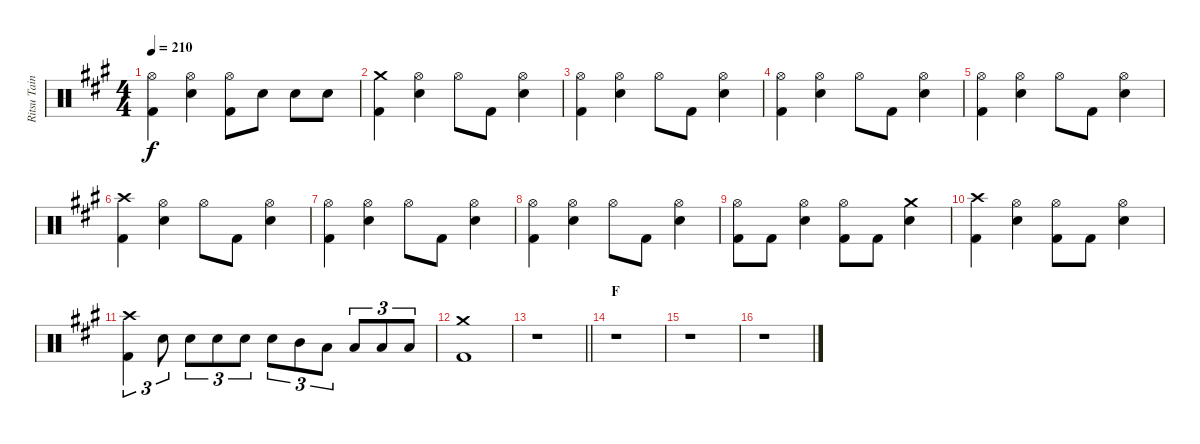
\track ("Ritsu Tainaka" "Ritsu Tain") {instrument percussion}
\staff {score}
\articulation defaults
\ts (4 4)
\tempo 210
\clef neutral
\ks a
("Hi-Hat (open)" "Kick (hit) 2").4{dy f} ("Hi-Hat (open)" "Electric Snare (hit)").4 ("Hi-Hat (open)" "Kick (hit) 2").8 "Electric Snare (hit)".8 "Electric Snare (hit)".8 "Electric Snare (hit)".8 |
("Crash medium (hit)" "Kick (hit) 2").4 ("Hi-Hat (open)" "Electric Snare (hit)").4 "Hi-Hat (open)".8 "Kick (hit) 2".8 ("Hi-Hat (open)" "Electric Snare (hit)").4 |
("Hi-Hat (open)" "Kick (hit) 2").4 ("Hi-Hat (open)" "Electric Snare (hit)").4 "Hi-Hat (open)".8 "Kick (hit) 2".8 ("Hi-Hat (open)" "Electric Snare (hit)").4 |
("Hi-Hat (open)" "Kick (hit) 2").4 ("Hi-Hat (open)" "Electric Snare (hit)").4 "Hi-Hat (open)".8 "Kick (hit) 2".8 ("Hi-Hat (open)" "Electric Snare (hit)").4 |
("Hi-Hat (open)" "Kick (hit) 2").4 ("Hi-Hat (open)" "Electric Snare (hit)").4 "Hi-Hat (open)".8 "Kick (hit) 2".8 ("Hi-Hat (open)" "Electric Snare (hit)").4 |
("Crash high (hit)" "Kick (hit) 2").4 ("Hi-Hat (open)" "Electric Snare (hit)").4 "Hi-Hat (open)".8 "Kick (hit) 2".8 ("Hi-Hat (open)" "Electric Snare (hit)").4 |
("Hi-Hat (open)" "Kick (hit) 2").4 ("Hi-Hat (open)" "Electric Snare (hit)").4 "Hi-Hat (open)".8 "Kick (hit) 2".8 ("Hi-Hat (open)" "Electric Snare (hit)").4 |
("Hi-Hat (open)" "Kick (hit) 2").4 ("Hi-Hat (open)" "Electric Snare (hit)").4 "Hi-Hat (open)".8 "Kick (hit) 2".8 ("Hi-Hat (open)" "Electric Snare (hit)").4 |
("Hi-Hat (open)" "Kick (hit) 2").8 "Kick (hit) 2".8 ("Hi-Hat (open)" "Electric Snare (hit)").4 ("Hi-Hat (open)" "Kick (hit) 2").8 "Kick (hit) 2".8 ("Crash medium (hit)" "Electric Snare (hit)").4 |
("Crash high (hit)" "Kick (hit) 2").4 ("Hi-Hat (open)" "Electric Snare (hit)").4 ("Hi-Hat (open)" "Kick (hit) 2").8 "Kick (hit) 2".8 ("Hi-Hat (open)" "Electric Snare (hit)").4 |
("Crash high (hit)" "Kick (hit) 2").4{tu (3 2)} "Electric Snare (hit)".8{tu (3 2)} "Electric Snare (hit)".8{tu (3 2)} "Electric Snare (hit)".8{tu (3 2)} "Electric Snare (hit)".8{tu (3 2)} "Electric Snare (hit)".8{tu (3 2)} "Mid Tom (hit)".8{tu (3 2)} "Low Tom (hit)".8{tu (3 2)} "Low Floor Tom (hit)".8{tu (3 2)} "Low Floor Tom (hit)".8{tu (3 2)} "Low Floor Tom (hit)".8{tu (3 2)} |
("Crash medium (hit)" "Kick (hit) 2").1 |
\barLineRight lightlight
r.1 |
\section ("" "F")
r.1 |
r.1 |
r.1
